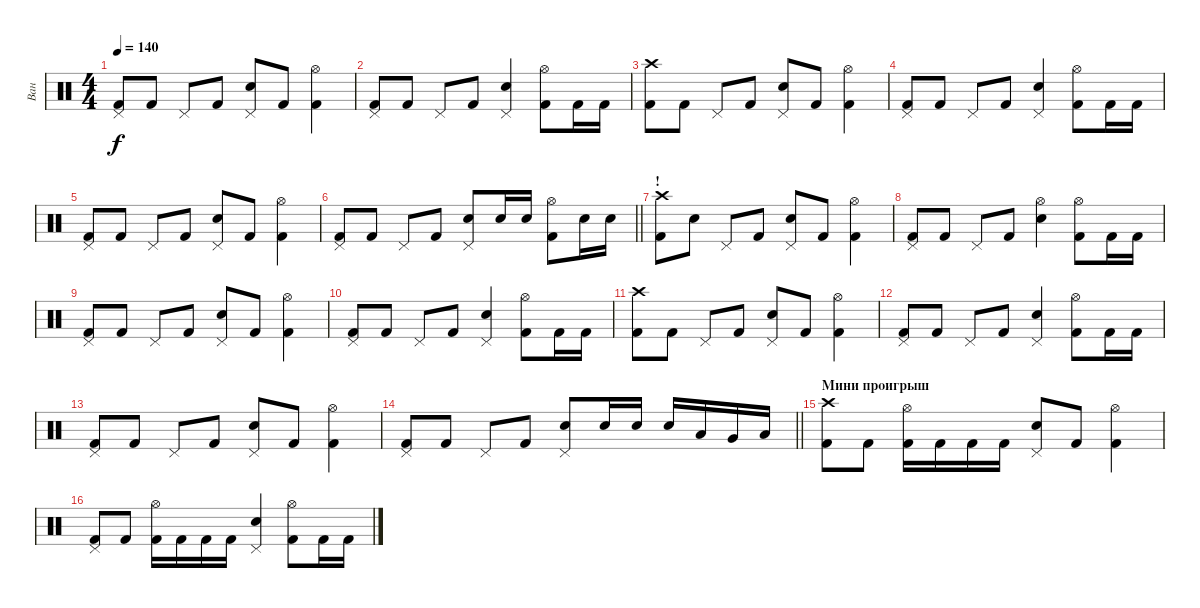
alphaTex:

\track ("Ван" "Ван") {instrument percussion}
\staff {score}
\articulation defaults
\ts (4 4)
\tempo 140
\clef neutral
\ks c
("Pedal Hi-Hat (hit)" "Kick (hit) 2").8{dy f} "Kick (hit) 2".8 "Pedal Hi-Hat (hit)".8 "Kick (hit) 2".8 ("Pedal Hi-Hat (hit)" "Snare (hit) 2").8 "Kick (hit) 2".8 ("Hi-Hat (open)" "Kick (hit) 2").4 |
("Pedal Hi-Hat (hit)" "Kick (hit) 2").8 "Kick (hit) 2".8 "Pedal Hi-Hat (hit)".8 "Kick (hit) 2".8 ("Pedal Hi-Hat (hit)" "Snare (hit) 2").4 ("Hi-Hat (open)" "Kick (hit) 2").8 "Kick (hit) 2".16 "Kick (hit) 2".16 |
("Crash high (hit)" "Kick (hit) 2").8 "Kick (hit) 2".8 "Pedal Hi-Hat (hit)".8 "Kick (hit) 2".8 ("Pedal Hi-Hat (hit)" "Snare (hit) 2").8 "Kick (hit) 2".8 ("Hi-Hat (open)" "Kick (hit) 2").4 |
("Pedal Hi-Hat (hit)" "Kick (hit) 2").8 "Kick (hit) 2".8 "Pedal Hi-Hat (hit)".8 "Kick (hit) 2".8 ("Pedal Hi-Hat (hit)" "Snare (hit) 2").4 ("Hi-Hat (open)" "Kick (hit) 2").8 "Kick (hit) 2".16 "Kick (hit) 2".16 |
("Pedal Hi-Hat (hit)" "Kick (hit) 2").8 "Kick (hit) 2".8 "Pedal Hi-Hat (hit)".8 "Kick (hit) 2".8 ("Pedal Hi-Hat (hit)" "Snare (hit) 2").8 "Kick (hit) 2".8 ("Hi-Hat (open)" "Kick (hit) 2").4 |
\barLineRight lightlight
("Pedal Hi-Hat (hit)" "Kick (hit) 2").8 "Kick (hit) 2".8 "Pedal Hi-Hat (hit)".8 "Kick (hit) 2".8 ("Pedal Hi-Hat (hit)" "Snare (hit) 2").8 "Snare (hit) 2".16 "Snare (hit) 2".16 ("Hi-Hat (open)" "Kick (hit) 2").8 "Snare (hit) 2".16 "Snare (hit) 2".16 |
\section ("" "!")
("Crash high (hit)" "Kick (hit) 2").8 "Snare (hit) 2".8 "Pedal Hi-Hat (hit)".8 "Kick (hit) 2".8 ("Pedal Hi-Hat (hit)" "Snare (hit) 2").8 "Kick (hit) 2".8 ("Hi-Hat (open)" "Kick (hit) 2").4 |
("Pedal Hi-Hat (hit)" "Kick (hit) 2").8 "Kick (hit) 2".8 "Pedal Hi-Hat (hit)".8 "Kick (hit) 2".8 ("Hi-Hat (open)" "Snare (hit) 2").4 ("Hi-Hat (open)" "Kick (hit) 2").8 "Kick (hit) 2".16 "Kick (hit) 2".16 |
("Pedal Hi-Hat (hit)" "Kick (hit) 2").8 "Kick (hit) 2".8 "Pedal Hi-Hat (hit)".8 "Kick (hit) 2".8 ("Pedal Hi-Hat (hit)" "Snare (hit) 2").8 "Kick (hit) 2".8 ("Hi-Hat (open)" "Kick (hit) 2").4 |
("Pedal Hi-Hat (hit)" "Kick (hit) 2").8 "Kick (hit) 2".8 "Pedal Hi-Hat (hit)".8 "Kick (hit) 2".8 ("Pedal Hi-Hat (hit)" "Snare (hit) 2").4 ("Hi-Hat (open)" "Kick (hit) 2").8 "Kick (hit) 2".16 "Kick (hit) 2".16 |
("Crash high (hit)" "Kick (hit) 2").8 "Kick (hit) 2".8 "Pedal Hi-Hat (hit)".8 "Kick (hit) 2".8 ("Pedal Hi-Hat (hit)" "Snare (hit) 2").8 "Kick (hit) 2".8 ("Hi-Hat (open)" "Kick (hit) 2").4 |
("Pedal Hi-Hat (hit)" "Kick (hit) 2").8 "Kick (hit) 2".8 "Pedal Hi-Hat (hit)".8 "Kick (hit) 2".8 ("Pedal Hi-Hat (hit)" "Snare (hit) 2").4 ("Hi-Hat (open)" "Kick (hit) 2").8 "Kick (hit) 2".16 "Kick (hit) 2".16 |
("Pedal Hi-Hat (hit)" "Kick (hit) 2").8 "Kick (hit) 2".8 "Pedal Hi-Hat (hit)".8 "Kick (hit) 2".8 ("Pedal Hi-Hat (hit)" "Snare (hit) 2").8 "Kick (hit) 2".8 ("Hi-Hat (open)" "Kick (hit) 2").4 |
\barLineRight lightlight
("Pedal Hi-Hat (hit)" "Kick (hit) 2").8 "Kick (hit) 2".8 "Pedal Hi-Hat (hit)".8 "Kick (hit) 2".8 ("Pedal Hi-Hat (hit)" "Snare (hit) 2").8 "Snare (hit) 2".16 "Snare (hit) 2".16 "Snare (hit) 2".16 "Low Floor Tom (hit)".16 "Very Low Tom (hit)".16 "Low Tom (hit)".16 |
\section ("" "Мини проигрыш")
("Crash high (hit)" "Kick (hit) 2").8 "Kick (hit) 2".8 ("Hi-Hat (open)" "Kick (hit) 2").16 "Kick (hit) 2".16 "Kick (hit) 2".16 "Kick (hit) 2".16 ("Pedal Hi-Hat (hit)" "Snare (hit) 2").8 "Kick (hit) 2".8 ("Hi-Hat (open)" "Kick (hit) 2").4 |
("Pedal Hi-Hat (hit)" "Kick (hit) 2").8 "Kick (hit) 2".8 ("Hi-Hat (open)" "Kick (hit) 2").16 "Kick (hit) 2".16 "Kick (hit) 2".16 "Kick (hit) 2".16 ("Pedal Hi-Hat (hit)" "Snare (hit) 2").4 ("Hi-Hat (open)" "Kick (hit) 2").8 "Kick (hit) 2".16 "Kick (hit) 2".16
